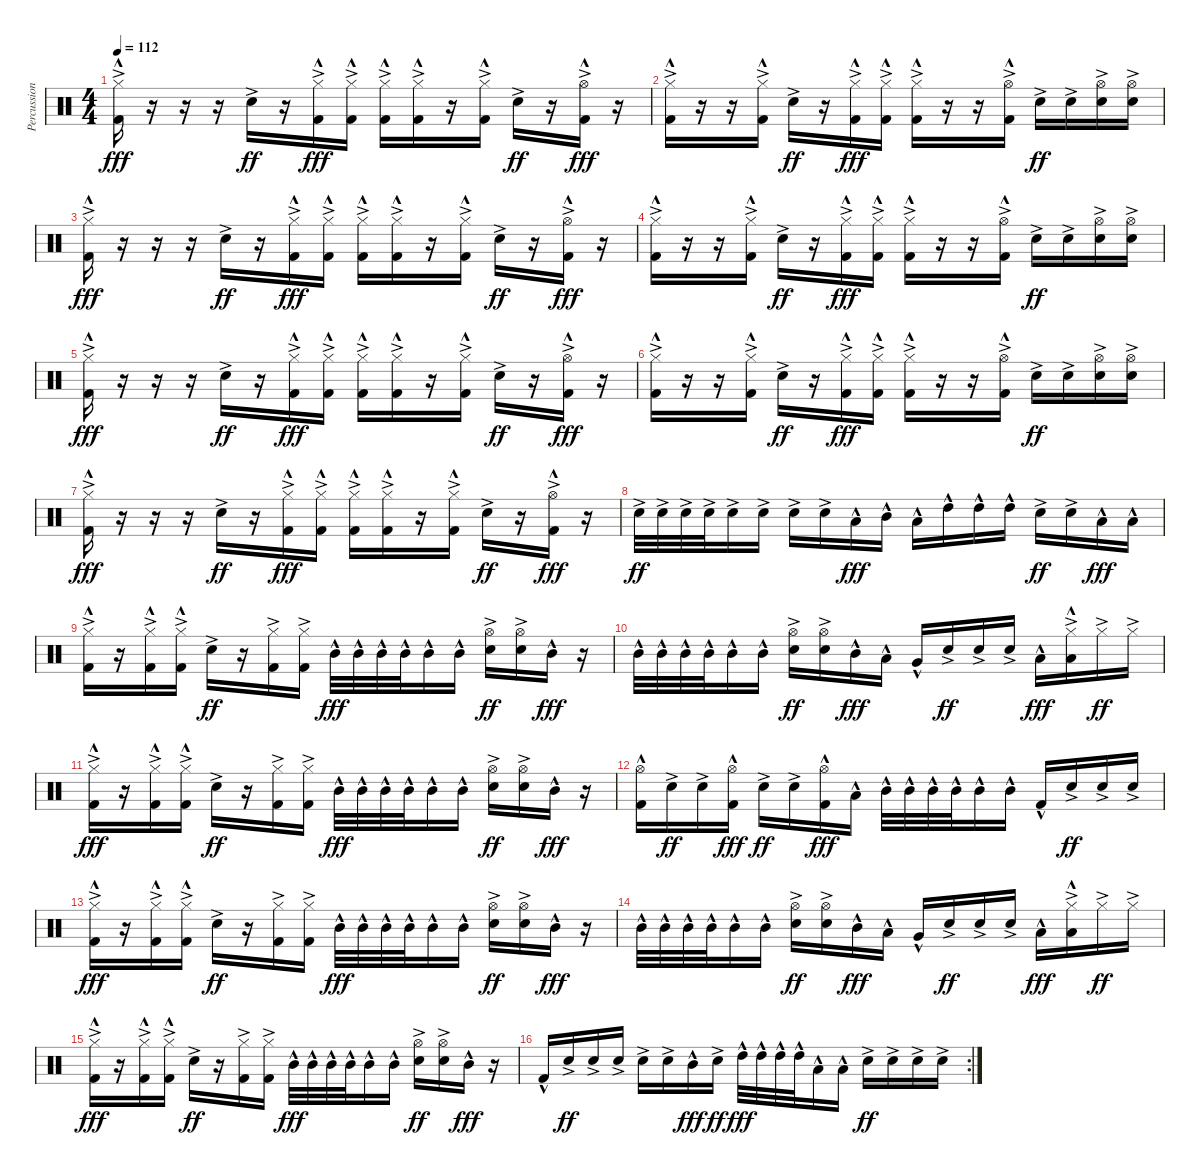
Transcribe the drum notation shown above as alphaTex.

\track ("Percussion" "Percussion") {instrument percussion}
\staff {score}
\articulation defaults
\ts (4 4)
\tempo 112
\clef neutral
\ks c
("Hi-Hat (closed)"{ac} "Kick (hit) 2"{hac}).16{dy fff} r.16 r.16 r.16 "Snare (hit) 2"{ac}.16{dy ff} r.16 ("Hi-Hat (closed)"{ac} "Kick (hit) 2"{hac}).16{dy fff} ("Hi-Hat (closed)"{ac} "Kick (hit) 2"{hac}).16 ("Hi-Hat (closed)"{ac} "Kick (hit) 2"{hac}).16 ("Hi-Hat (closed)"{ac} "Kick (hit) 2"{hac}).16 r.16 ("Hi-Hat (closed)"{ac} "Kick (hit) 2"{hac}).16 "Snare (hit) 2"{ac}.16{dy ff} r.16 ("Hi-Hat (open)"{ac} "Kick (hit) 2"{hac}).16{dy fff} r.16 |
("Hi-Hat (closed)"{ac} "Kick (hit) 2"{hac}).16 r.16 r.16 ("Hi-Hat (closed)"{ac} "Kick (hit) 2"{hac}).16 "Snare (hit) 2"{ac}.16{dy ff} r.16 ("Hi-Hat (closed)"{ac} "Kick (hit) 2"{hac}).16{dy fff} ("Hi-Hat (closed)"{ac} "Kick (hit) 2"{hac}).16 ("Hi-Hat (closed)"{ac} "Kick (hit) 2"{hac}).16 r.16 r.16 ("Hi-Hat (open)"{ac} "Kick (hit) 2"{hac}).16 "Snare (hit) 2"{ac}.16{dy ff} "Snare (hit) 2"{ac}.16 ("Hi-Hat (open)"{ac} "Snare (hit) 2"{ac}).16 ("Hi-Hat (open)"{ac} "Snare (hit) 2"{ac}).16 |
("Hi-Hat (closed)"{ac} "Kick (hit) 2"{hac}).16{dy fff} r.16 r.16 r.16 "Snare (hit) 2"{ac}.16{dy ff} r.16 ("Hi-Hat (closed)"{ac} "Kick (hit) 2"{hac}).16{dy fff} ("Hi-Hat (closed)"{ac} "Kick (hit) 2"{hac}).16 ("Hi-Hat (closed)"{ac} "Kick (hit) 2"{hac}).16 ("Hi-Hat (closed)"{ac} "Kick (hit) 2"{hac}).16 r.16 ("Hi-Hat (closed)"{ac} "Kick (hit) 2"{hac}).16 "Snare (hit) 2"{ac}.16{dy ff} r.16 ("Hi-Hat (open)"{ac} "Kick (hit) 2"{hac}).16{dy fff} r.16 |
("Hi-Hat (closed)"{ac} "Kick (hit) 2"{hac}).16 r.16 r.16 ("Hi-Hat (closed)"{ac} "Kick (hit) 2"{hac}).16 "Snare (hit) 2"{ac}.16{dy ff} r.16 ("Hi-Hat (closed)"{ac} "Kick (hit) 2"{hac}).16{dy fff} ("Hi-Hat (closed)"{ac} "Kick (hit) 2"{hac}).16 ("Hi-Hat (closed)"{ac} "Kick (hit) 2"{hac}).16 r.16 r.16 ("Hi-Hat (open)"{ac} "Kick (hit) 2"{hac}).16 "Snare (hit) 2"{ac}.16{dy ff} "Snare (hit) 2"{ac}.16 ("Hi-Hat (open)"{ac} "Snare (hit) 2"{ac}).16 ("Hi-Hat (open)"{ac} "Snare (hit) 2"{ac}).16 |
("Hi-Hat (closed)"{ac} "Kick (hit) 2"{hac}).16{dy fff} r.16 r.16 r.16 "Snare (hit) 2"{ac}.16{dy ff} r.16 ("Hi-Hat (closed)"{ac} "Kick (hit) 2"{hac}).16{dy fff} ("Hi-Hat (closed)"{ac} "Kick (hit) 2"{hac}).16 ("Hi-Hat (closed)"{ac} "Kick (hit) 2"{hac}).16 ("Hi-Hat (closed)"{ac} "Kick (hit) 2"{hac}).16 r.16 ("Hi-Hat (closed)"{ac} "Kick (hit) 2"{hac}).16 "Snare (hit) 2"{ac}.16{dy ff} r.16 ("Hi-Hat (open)"{ac} "Kick (hit) 2"{hac}).16{dy fff} r.16 |
("Hi-Hat (closed)"{ac} "Kick (hit) 2"{hac}).16 r.16 r.16 ("Hi-Hat (closed)"{ac} "Kick (hit) 2"{hac}).16 "Snare (hit) 2"{ac}.16{dy ff} r.16 ("Hi-Hat (closed)"{ac} "Kick (hit) 2"{hac}).16{dy fff} ("Hi-Hat (closed)"{ac} "Kick (hit) 2"{hac}).16 ("Hi-Hat (closed)"{ac} "Kick (hit) 2"{hac}).16 r.16 r.16 ("Hi-Hat (open)"{ac} "Kick (hit) 2"{hac}).16 "Snare (hit) 2"{ac}.16{dy ff} "Snare (hit) 2"{ac}.16 ("Hi-Hat (open)"{ac} "Snare (hit) 2"{ac}).16 ("Hi-Hat (open)"{ac} "Snare (hit) 2"{ac}).16 |
("Hi-Hat (closed)"{ac} "Kick (hit) 2"{hac}).16{dy fff} r.16 r.16 r.16 "Snare (hit) 2"{ac}.16{dy ff} r.16 ("Hi-Hat (closed)"{ac} "Kick (hit) 2"{hac}).16{dy fff} ("Hi-Hat (closed)"{ac} "Kick (hit) 2"{hac}).16 ("Hi-Hat (closed)"{ac} "Kick (hit) 2"{hac}).16 ("Hi-Hat (closed)"{ac} "Kick (hit) 2"{hac}).16 r.16 ("Hi-Hat (closed)"{ac} "Kick (hit) 2"{hac}).16 "Snare (hit) 2"{ac}.16{dy ff} r.16 ("Hi-Hat (open)"{ac} "Kick (hit) 2"{hac}).16{dy fff} r.16 |
"Snare (hit) 2"{ac}.32{dy ff} "Snare (hit) 2"{ac}.32 "Snare (hit) 2"{ac}.32 "Snare (hit) 2"{ac}.32 "Snare (hit) 2"{ac}.16 "Snare (hit) 2"{ac}.16 "Snare (hit) 2"{ac}.16 "Snare (hit) 2"{ac}.16 "Low Tom (hit)"{hac}.16{dy fff} "Mid Tom (hit)"{hac}.16 "Low Tom (hit)"{hac}.16 "High Tom (hit)"{hac}.16 "High Tom (hit)"{hac}.16 "High Tom (hit)"{hac}.16 "Snare (hit) 2"{ac}.16{dy ff} "Snare (hit) 2"{ac}.16 "Low Tom (hit)"{hac}.16{dy fff} "Low Tom (hit)"{hac}.16 |
("Hi-Hat (closed)"{ac} "Kick (hit) 2"{hac}).16 r.16 ("Hi-Hat (closed)"{ac} "Kick (hit) 2"{hac}).16 ("Hi-Hat (closed)"{ac} "Kick (hit) 2"{hac}).16 "Snare (hit) 2"{ac}.16{dy ff} r.16 ("Hi-Hat (closed)"{ac} "Kick (hit) 2"{ac}).16 ("Hi-Hat (closed)"{ac} "Kick (hit) 2"{ac}).16 "Mid Tom (hit)"{hac}.32{dy fff} "Mid Tom (hit)"{hac}.32 "Mid Tom (hit)"{hac}.32 "Mid Tom (hit)"{hac}.32 "Mid Tom (hit)"{hac}.16 "Mid Tom (hit)"{hac}.16 ("Hi-Hat (open)"{ac} "Snare (hit) 2"{ac}).16{dy ff} ("Hi-Hat (open)"{ac} "Snare (hit) 2"{ac}).16 "Mid Tom (hit)"{hac}.16{dy fff} r.16 |
"Mid Tom (hit)"{hac}.32 "Mid Tom (hit)"{hac}.32 "Mid Tom (hit)"{hac}.32 "Mid Tom (hit)"{hac}.32 "Mid Tom (hit)"{hac}.16 "Mid Tom (hit)"{hac}.16 ("Hi-Hat (open)"{ac} "Snare (hit) 2"{ac}).16{dy ff} ("Hi-Hat (open)"{ac} "Snare (hit) 2"{ac}).16 "Mid Tom (hit)"{hac}.16{dy fff} "Low Tom (hit)"{hac}.16 "Very Low Tom (hit)"{hac}.16 "Snare (hit) 2"{ac}.16{dy ff} "Snare (hit) 2"{ac}.16 "Snare (hit) 2"{ac}.16 "Low Tom (hit)"{hac}.16{dy fff} ("Hi-Hat (closed)"{ac} "Low Tom (hit)"{hac}).16 "Hi-Hat (closed)"{ac}.16{dy ff} "Hi-Hat (closed)"{ac}.16 |
("Hi-Hat (closed)"{ac} "Kick (hit) 2"{hac}).16{dy fff} r.16 ("Hi-Hat (closed)"{ac} "Kick (hit) 2"{hac}).16 ("Hi-Hat (closed)"{ac} "Kick (hit) 2"{hac}).16 "Snare (hit) 2"{ac}.16{dy ff} r.16 ("Hi-Hat (closed)"{ac} "Kick (hit) 2"{ac}).16 ("Hi-Hat (closed)"{ac} "Kick (hit) 2"{ac}).16 "Mid Tom (hit)"{hac}.32{dy fff} "Mid Tom (hit)"{hac}.32 "Mid Tom (hit)"{hac}.32 "Mid Tom (hit)"{hac}.32 "Mid Tom (hit)"{hac}.16 "Mid Tom (hit)"{hac}.16 ("Hi-Hat (open)"{ac} "Snare (hit) 2"{ac}).16{dy ff} ("Hi-Hat (open)"{ac} "Snare (hit) 2"{ac}).16 "Mid Tom (hit)"{hac}.16{dy fff} r.16 |
("Hi-Hat (open)" "Kick (hit) 2"{hac}).16 "Snare (hit) 2"{ac}.16{dy ff} "Snare (hit) 2"{ac}.16 ("Hi-Hat (open)" "Kick (hit) 2"{hac}).16{dy fff} "Snare (hit) 2"{ac}.16{dy ff} "Snare (hit) 2"{ac}.16 ("Hi-Hat (open)" "Kick (hit) 2"{hac}).16{dy fff} "Low Tom (hit)"{hac}.16 "Mid Tom (hit)"{hac}.32 "Mid Tom (hit)"{hac}.32 "Mid Tom (hit)"{hac}.32 "Mid Tom (hit)"{hac}.32 "Mid Tom (hit)"{hac}.16 "Mid Tom (hit)"{hac}.16 "Kick (hit) 2"{hac}.16 "Snare (hit) 2"{ac}.16{dy ff} "Snare (hit) 2"{ac}.16 "Snare (hit) 2"{ac}.16 |
("Hi-Hat (closed)"{ac} "Kick (hit) 2"{hac}).16{dy fff} r.16 ("Hi-Hat (closed)"{ac} "Kick (hit) 2"{hac}).16 ("Hi-Hat (closed)"{ac} "Kick (hit) 2"{hac}).16 "Snare (hit) 2"{ac}.16{dy ff} r.16 ("Hi-Hat (closed)"{ac} "Kick (hit) 2"{ac}).16 ("Hi-Hat (closed)"{ac} "Kick (hit) 2"{ac}).16 "Mid Tom (hit)"{hac}.32{dy fff} "Mid Tom (hit)"{hac}.32 "Mid Tom (hit)"{hac}.32 "Mid Tom (hit)"{hac}.32 "Mid Tom (hit)"{hac}.16 "Mid Tom (hit)"{hac}.16 ("Hi-Hat (open)"{ac} "Snare (hit) 2"{ac}).16{dy ff} ("Hi-Hat (open)"{ac} "Snare (hit) 2"{ac}).16 "Mid Tom (hit)"{hac}.16{dy fff} r.16 |
"Mid Tom (hit)"{hac}.32 "Mid Tom (hit)"{hac}.32 "Mid Tom (hit)"{hac}.32 "Mid Tom (hit)"{hac}.32 "Mid Tom (hit)"{hac}.16 "Mid Tom (hit)"{hac}.16 ("Hi-Hat (open)"{ac} "Snare (hit) 2"{ac}).16{dy ff} ("Hi-Hat (open)"{ac} "Snare (hit) 2"{ac}).16 "Mid Tom (hit)"{hac}.16{dy fff} "Low Tom (hit)"{hac}.16 "Very Low Tom (hit)"{hac}.16 "Snare (hit) 2"{ac}.16{dy ff} "Snare (hit) 2"{ac}.16 "Snare (hit) 2"{ac}.16 "Low Tom (hit)"{hac}.16{dy fff} ("Hi-Hat (closed)"{ac} "Low Tom (hit)"{hac}).16 "Hi-Hat (closed)"{ac}.16{dy ff} "Hi-Hat (closed)"{ac}.16 |
("Hi-Hat (closed)"{ac} "Kick (hit) 2"{hac}).16{dy fff} r.16 ("Hi-Hat (closed)"{ac} "Kick (hit) 2"{hac}).16 ("Hi-Hat (closed)"{ac} "Kick (hit) 2"{hac}).16 "Snare (hit) 2"{ac}.16{dy ff} r.16 ("Hi-Hat (closed)"{ac} "Kick (hit) 2"{ac}).16 ("Hi-Hat (closed)"{ac} "Kick (hit) 2"{ac}).16 "Mid Tom (hit)"{hac}.32{dy fff} "Mid Tom (hit)"{hac}.32 "Mid Tom (hit)"{hac}.32 "Mid Tom (hit)"{hac}.32 "Mid Tom (hit)"{hac}.16 "Mid Tom (hit)"{hac}.16 ("Hi-Hat (open)"{ac} "Snare (hit) 2"{ac}).16{dy ff} ("Hi-Hat (open)"{ac} "Snare (hit) 2"{ac}).16 "Mid Tom (hit)"{hac}.16{dy fff} r.16 |
\rc 2 "Kick (hit) 2"{hac}.16 "Snare (hit) 2"{ac}.16{dy ff} "Snare (hit) 2"{ac}.16 "Snare (hit) 2"{ac}.16 "Snare (hit) 2"{ac}.16 "Snare (hit) 2"{ac}.16 "Mid Tom (hit)"{hac}.16{dy fff} "Snare (hit) 2"{ac}.16{dy ff} "High Tom (hit)"{hac}.32{dy fff} "High Tom (hit)"{hac}.32 "High Tom (hit)"{hac}.32 "High Tom (hit)"{hac}.32 "Low Tom (hit)"{hac}.16 "Low Tom (hit)"{hac}.16 "Snare (hit) 2"{ac}.16{dy ff} "Snare (hit) 2"{ac}.16 "Snare (hit) 2"{ac}.16 "Snare (hit) 2"{ac}.16
